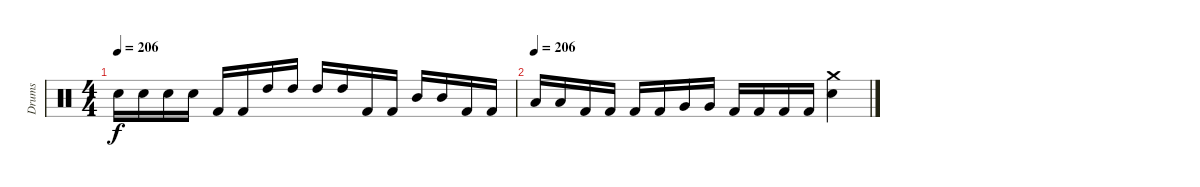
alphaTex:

\track ("Drums" "Drums") {instrument percussion}
\staff {score}
\articulation defaults
\ts (4 4)
\tempo 206
\clef neutral
\ks c "Electric Snare (hit)".16{dy f} "Electric Snare (hit)".16 "Electric Snare (hit)".16 "Electric Snare (hit)".16 "Kick (hit) 2".16 "Kick (hit) 2".16 "High Tom (hit)".16 "High Tom (hit)".16 "High Tom (hit)".16 "High Tom (hit)".16 "Kick (hit) 2".16 "Kick (hit) 2".16 "Mid Tom (hit)".16 "Mid Tom (hit)".16 "Kick (hit) 2".16 "Kick (hit) 2".16
|
\tempo (206)
"Low Tom (hit)".16 "Low Tom (hit)".16 "Kick (hit) 2".16 "Kick (hit) 2".16 "Kick (hit) 2".16 "Kick (hit) 2".16 "Very Low Tom (hit)".16 "Very Low Tom (hit)".16 "Kick (hit) 2".16 "Kick (hit) 2".16 "Kick (hit) 2".16 "Kick (hit) 2".16 ("Crash medium (hit)" "Electric Snare (hit)").4
